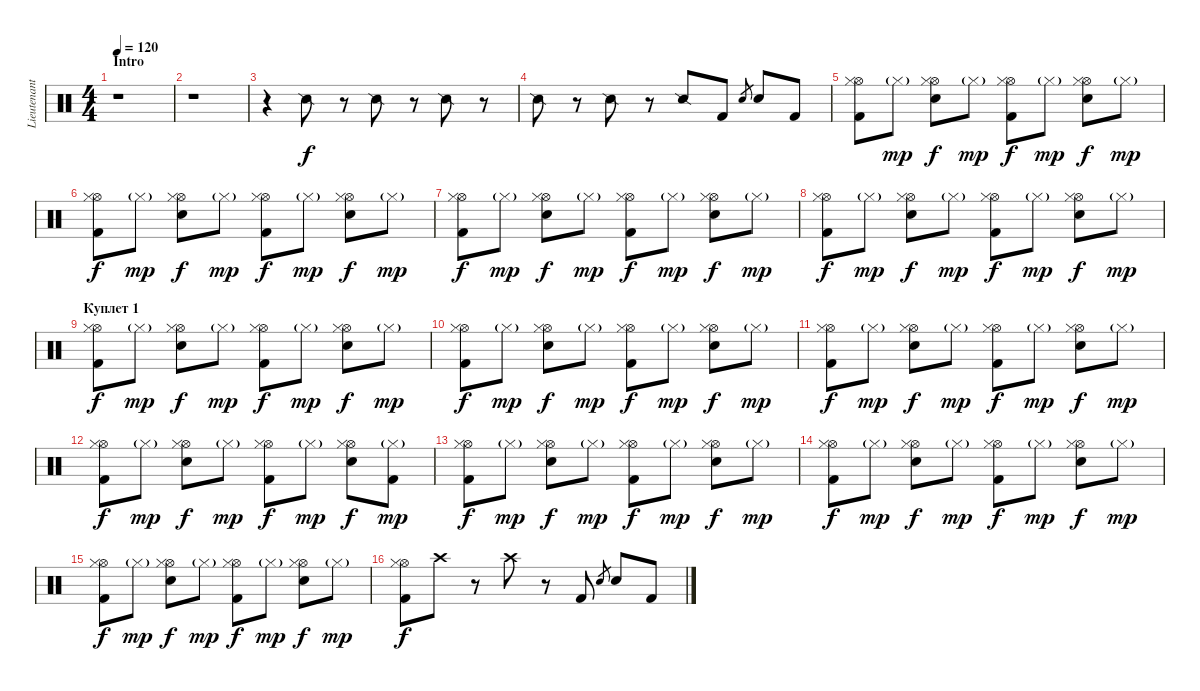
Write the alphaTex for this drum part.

\track ("Lieutenant [drums]" "Lieutenant") {instrument percussion}
\staff {score}
\articulation defaults
\ts (4 4)
\section ("" "Intro")
\tempo 120
\clef neutral
\ks c
r.1{dy f} |
r.1 |
r.4 "Snare (side stick) 2".8 r.8 "Snare (side stick) 2".8 r.8 "Snare (side stick) 2".8 r.8 |
"Snare (side stick) 2".8 r.8 "Snare (side stick) 2".8 r.8 "Snare (side stick) 2".8 "Kick (hit) 2".8 "Snare (hit) 2".8{gr} "Snare (hit) 2".8 "Kick (hit) 2".8 |
("Kick (hit) 2" "Hi-Hat (open)" "Hi-Hat (closed)").8 "Hi-Hat (closed)"{g}.8{dy mp} ("Snare (hit) 2" "Hi-Hat (open)" "Hi-Hat (closed)").8{dy f} "Hi-Hat (closed)"{g}.8{dy mp} ("Kick (hit) 2" "Hi-Hat (open)" "Hi-Hat (closed)").8{dy f} "Hi-Hat (closed)"{g}.8{dy mp} ("Snare (hit) 2" "Hi-Hat (open)" "Hi-Hat (closed)").8{dy f} "Hi-Hat (closed)"{g}.8{dy mp} |
("Kick (hit) 2" "Hi-Hat (open)" "Hi-Hat (closed)").8{dy f} "Hi-Hat (closed)"{g}.8{dy mp} ("Snare (hit) 2" "Hi-Hat (open)" "Hi-Hat (closed)").8{dy f} "Hi-Hat (closed)"{g}.8{dy mp} ("Kick (hit) 2" "Hi-Hat (open)" "Hi-Hat (closed)").8{dy f} "Hi-Hat (closed)"{g}.8{dy mp} ("Snare (hit) 2" "Hi-Hat (open)" "Hi-Hat (closed)").8{dy f} "Hi-Hat (closed)"{g}.8{dy mp} |
("Kick (hit) 2" "Hi-Hat (open)" "Hi-Hat (closed)").8{dy f} "Hi-Hat (closed)"{g}.8{dy mp} ("Snare (hit) 2" "Hi-Hat (open)" "Hi-Hat (closed)").8{dy f} "Hi-Hat (closed)"{g}.8{dy mp} ("Kick (hit) 2" "Hi-Hat (open)" "Hi-Hat (closed)").8{dy f} "Hi-Hat (closed)"{g}.8{dy mp} ("Snare (hit) 2" "Hi-Hat (open)" "Hi-Hat (closed)").8{dy f} "Hi-Hat (closed)"{g}.8{dy mp} |
("Kick (hit) 2" "Hi-Hat (open)" "Hi-Hat (closed)").8{dy f} "Hi-Hat (closed)"{g}.8{dy mp} ("Snare (hit) 2" "Hi-Hat (open)" "Hi-Hat (closed)").8{dy f} "Hi-Hat (closed)"{g}.8{dy mp} ("Kick (hit) 2" "Hi-Hat (open)" "Hi-Hat (closed)").8{dy f} "Hi-Hat (closed)"{g}.8{dy mp} ("Snare (hit) 2" "Hi-Hat (open)" "Hi-Hat (closed)").8{dy f} "Hi-Hat (closed)"{g}.8{dy mp} |
\section ("" "Куплет 1")
("Kick (hit) 2" "Hi-Hat (open)" "Hi-Hat (closed)").8{dy f} "Hi-Hat (closed)"{g}.8{dy mp} ("Snare (hit) 2" "Hi-Hat (open)" "Hi-Hat (closed)").8{dy f} "Hi-Hat (closed)"{g}.8{dy mp} ("Kick (hit) 2" "Hi-Hat (open)" "Hi-Hat (closed)").8{dy f} "Hi-Hat (closed)"{g}.8{dy mp} ("Snare (hit) 2" "Hi-Hat (open)" "Hi-Hat (closed)").8{dy f} "Hi-Hat (closed)"{g}.8{dy mp} |
("Kick (hit) 2" "Hi-Hat (open)" "Hi-Hat (closed)").8{dy f} "Hi-Hat (closed)"{g}.8{dy mp} ("Snare (hit) 2" "Hi-Hat (open)" "Hi-Hat (closed)").8{dy f} "Hi-Hat (closed)"{g}.8{dy mp} ("Kick (hit) 2" "Hi-Hat (open)" "Hi-Hat (closed)").8{dy f} "Hi-Hat (closed)"{g}.8{dy mp} ("Snare (hit) 2" "Hi-Hat (open)" "Hi-Hat (closed)").8{dy f} "Hi-Hat (closed)"{g}.8{dy mp} |
("Kick (hit) 2" "Hi-Hat (open)" "Hi-Hat (closed)").8{dy f} "Hi-Hat (closed)"{g}.8{dy mp} ("Snare (hit) 2" "Hi-Hat (open)" "Hi-Hat (closed)").8{dy f} "Hi-Hat (closed)"{g}.8{dy mp} ("Kick (hit) 2" "Hi-Hat (open)" "Hi-Hat (closed)").8{dy f} "Hi-Hat (closed)"{g}.8{dy mp} ("Snare (hit) 2" "Hi-Hat (open)" "Hi-Hat (closed)").8{dy f} "Hi-Hat (closed)"{g}.8{dy mp} |
("Kick (hit) 2" "Hi-Hat (open)" "Hi-Hat (closed)").8{dy f} "Hi-Hat (closed)"{g}.8{dy mp} ("Snare (hit) 2" "Hi-Hat (open)" "Hi-Hat (closed)").8{dy f} "Hi-Hat (closed)"{g}.8{dy mp} ("Kick (hit) 2" "Hi-Hat (open)" "Hi-Hat (closed)").8{dy f} "Hi-Hat (closed)"{g}.8{dy mp} ("Snare (hit) 2" "Hi-Hat (open)" "Hi-Hat (closed)").8{dy f} ("Kick (hit) 2" "Hi-Hat (closed)"{g}).8{dy mp} |
("Kick (hit) 2" "Hi-Hat (open)" "Hi-Hat (closed)").8{dy f} "Hi-Hat (closed)"{g}.8{dy mp} ("Snare (hit) 2" "Hi-Hat (open)" "Hi-Hat (closed)").8{dy f} "Hi-Hat (closed)"{g}.8{dy mp} ("Kick (hit) 2" "Hi-Hat (open)" "Hi-Hat (closed)").8{dy f} "Hi-Hat (closed)"{g}.8{dy mp} ("Snare (hit) 2" "Hi-Hat (open)" "Hi-Hat (closed)").8{dy f} "Hi-Hat (closed)"{g}.8{dy mp} |
("Kick (hit) 2" "Hi-Hat (open)" "Hi-Hat (closed)").8{dy f} "Hi-Hat (closed)"{g}.8{dy mp} ("Snare (hit) 2" "Hi-Hat (open)" "Hi-Hat (closed)").8{dy f} "Hi-Hat (closed)"{g}.8{dy mp} ("Kick (hit) 2" "Hi-Hat (open)" "Hi-Hat (closed)").8{dy f} "Hi-Hat (closed)"{g}.8{dy mp} ("Snare (hit) 2" "Hi-Hat (open)" "Hi-Hat (closed)").8{dy f} "Hi-Hat (closed)"{g}.8{dy mp} |
("Kick (hit) 2" "Hi-Hat (open)" "Hi-Hat (closed)").8{dy f} "Hi-Hat (closed)"{g}.8{dy mp} ("Snare (hit) 2" "Hi-Hat (open)" "Hi-Hat (closed)").8{dy f} "Hi-Hat (closed)"{g}.8{dy mp} ("Kick (hit) 2" "Hi-Hat (open)" "Hi-Hat (closed)").8{dy f} "Hi-Hat (closed)"{g}.8{dy mp} ("Snare (hit) 2" "Hi-Hat (open)" "Hi-Hat (closed)").8{dy f} "Hi-Hat (closed)"{g}.8{dy mp} |
("Kick (hit) 2" "Hi-Hat (open)" "Hi-Hat (closed)").8{dy f} "Crash high (hit)".8 r.8 "Crash high (hit)".8 r.8 "Kick (hit) 2".8 "Snare (hit) 2".8{gr} "Snare (hit) 2".8 "Kick (hit) 2".8
